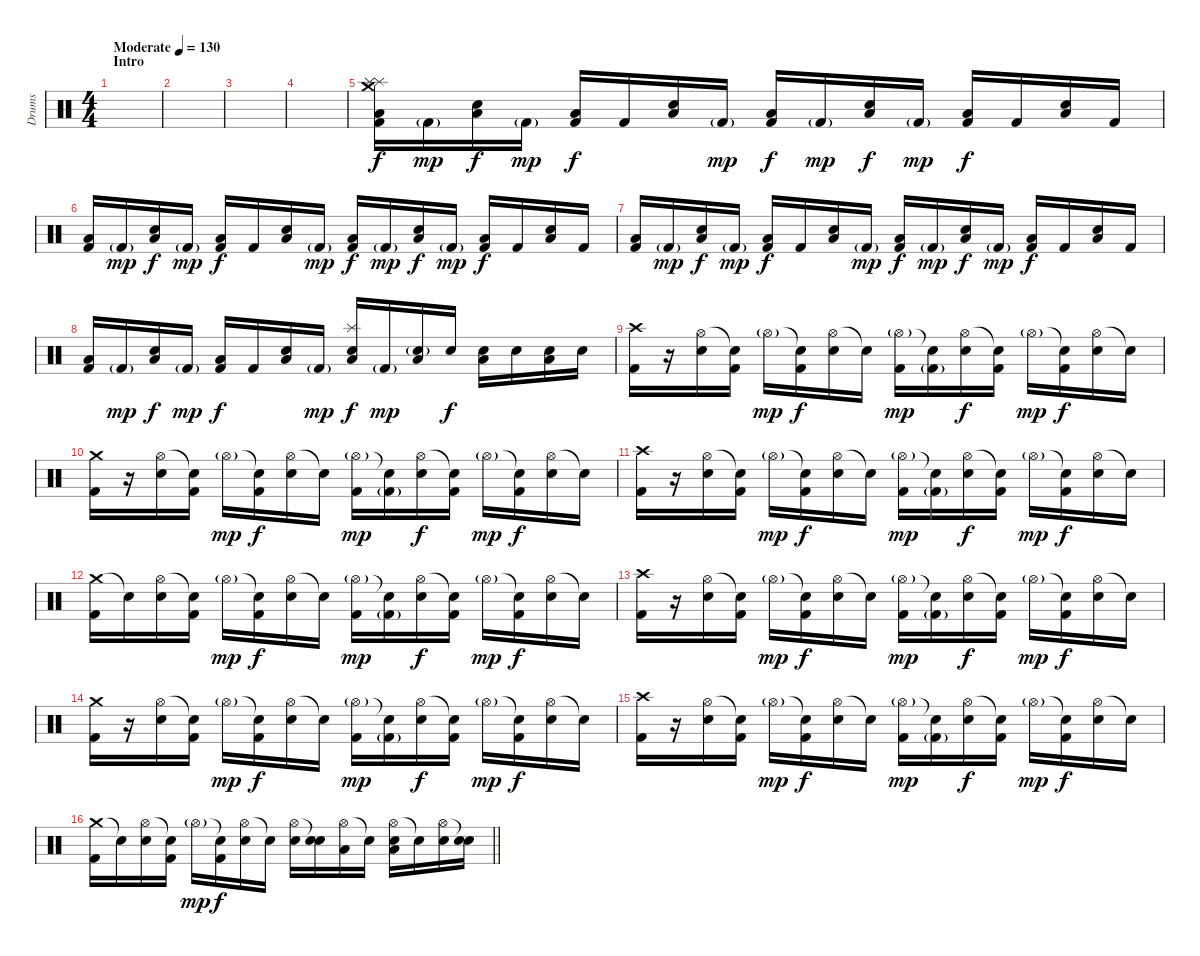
\track ("Drums" "Drums") {instrument percussion}
\staff {score}
\articulation defaults
\ts (4 4)
\section ("" "Intro")
\tempo (130 "Moderate")
\clef neutral
\ks c
|
|
|
|
("Low Floor Tom (hit)" "Crash medium (hit)" "Kick (hit) 2" "Splash (hit)" "Splash (hit)").16 "Kick (hit) 2"{g}.16{dy mp} ("Low Floor Tom (hit)" "Snare (hit) 2").16{dy f} "Kick (hit) 2"{g}.16{dy mp} ("Low Floor Tom (hit)" "Kick (hit) 2").16{dy f} "Kick (hit) 2".16 ("Low Floor Tom (hit)" "Snare (hit) 2").16 "Kick (hit) 2"{g}.16{dy mp} ("Low Floor Tom (hit)" "Kick (hit) 2").16{dy f} "Kick (hit) 2"{g}.16{dy mp} ("Low Floor Tom (hit)" "Snare (hit) 2").16{dy f} "Kick (hit) 2"{g}.16{dy mp} ("Low Floor Tom (hit)" "Kick (hit) 2").16{dy f} "Kick (hit) 2".16 ("Low Floor Tom (hit)" "Snare (hit) 2").16 "Kick (hit) 2".16 |
("Low Floor Tom (hit)" "Kick (hit) 2").16 "Kick (hit) 2"{g}.16{dy mp} ("Low Floor Tom (hit)" "Snare (hit) 2").16{dy f} "Kick (hit) 2"{g}.16{dy mp} ("Low Floor Tom (hit)" "Kick (hit) 2").16{dy f} "Kick (hit) 2".16 ("Low Floor Tom (hit)" "Snare (hit) 2").16 "Kick (hit) 2"{g}.16{dy mp} ("Low Floor Tom (hit)" "Kick (hit) 2").16{dy f} "Kick (hit) 2"{g}.16{dy mp} ("Low Floor Tom (hit)" "Snare (hit) 2").16{dy f} "Kick (hit) 2"{g}.16{dy mp} ("Low Floor Tom (hit)" "Kick (hit) 2").16{dy f} "Kick (hit) 2".16 ("Low Floor Tom (hit)" "Snare (hit) 2").16 "Kick (hit) 2".16 |
("Low Floor Tom (hit)" "Kick (hit) 2").16 "Kick (hit) 2"{g}.16{dy mp} ("Low Floor Tom (hit)" "Snare (hit) 2").16{dy f} "Kick (hit) 2"{g}.16{dy mp} ("Low Floor Tom (hit)" "Kick (hit) 2").16{dy f} "Kick (hit) 2".16 ("Low Floor Tom (hit)" "Snare (hit) 2").16 "Kick (hit) 2"{g}.16{dy mp} ("Low Floor Tom (hit)" "Kick (hit) 2").16{dy f} "Kick (hit) 2"{g}.16{dy mp} ("Low Floor Tom (hit)" "Snare (hit) 2").16{dy f} "Kick (hit) 2"{g}.16{dy mp} ("Low Floor Tom (hit)" "Kick (hit) 2").16{dy f} "Kick (hit) 2".16 ("Low Floor Tom (hit)" "Snare (hit) 2").16 "Kick (hit) 2".16 |
("Low Floor Tom (hit)" "Kick (hit) 2").16 "Kick (hit) 2"{g}.16{dy mp} ("Low Floor Tom (hit)" "Snare (hit) 2").16{dy f} "Kick (hit) 2"{g}.16{dy mp} ("Low Floor Tom (hit)" "Kick (hit) 2").16{dy f} "Kick (hit) 2".16 ("Low Floor Tom (hit)" "Snare (hit) 2").16 "Kick (hit) 2"{g}.16{dy mp} ("Low Floor Tom (hit)" "Splash (hit)" "Snare (hit) 2").16{dy f} "Kick (hit) 2"{g}.16{dy mp} ("Low Floor Tom (hit)" "Snare (hit) 2"{g}).16 "Snare (hit) 2".16{dy f} ("Low Floor Tom (hit)" "Snare (hit) 2").16 "Snare (hit) 2".16 ("Low Floor Tom (hit)" "Snare (hit) 2").16 "Snare (hit) 2".16 |
("Crash high (hit)" "Kick (hit) 2").16 r.16 ("Hi-Hat (open)" "Snare (hit) 2").16 ("Snare (hit)"{t} "Kick (hit) 2").16 "Hi-Hat (open)"{g}.16{dy mp} ("Snare (hit)"{t} "Kick (hit) 2").16{dy f} ("Hi-Hat (open)" "Snare (hit) 2").16 "Snare (hit)"{t}.16 ("Hi-Hat (open)"{g} "Kick (hit) 2").16{dy mp} ("Snare (hit)"{t} "Kick (hit) 2"{g}).16 ("Hi-Hat (open)" "Snare (hit) 2").16{dy f} ("Snare (hit)"{t} "Kick (hit) 2").16 "Hi-Hat (open)"{g}.16{dy mp} ("Snare (hit)"{t} "Kick (hit) 2").16{dy f} ("Hi-Hat (open)" "Snare (hit) 2").16 "Snare (hit)"{t}.16 |
("Crash medium (hit)" "Kick (hit) 2").16 r.16 ("Hi-Hat (open)" "Snare (hit) 2").16 ("Snare (hit)"{t} "Kick (hit) 2").16 "Hi-Hat (open)"{g}.16{dy mp} ("Snare (hit)"{t} "Kick (hit) 2").16{dy f} ("Hi-Hat (open)" "Snare (hit) 2").16 "Snare (hit)"{t}.16 ("Hi-Hat (open)"{g} "Kick (hit) 2").16{dy mp} ("Snare (hit)"{t} "Kick (hit) 2"{g}).16 ("Hi-Hat (open)" "Snare (hit) 2").16{dy f} ("Snare (hit)"{t} "Kick (hit) 2").16 "Hi-Hat (open)"{g}.16{dy mp} ("Snare (hit)"{t} "Kick (hit) 2").16{dy f} ("Hi-Hat (open)" "Snare (hit) 2").16 "Snare (hit)"{t}.16 |
("Crash high (hit)" "Kick (hit) 2").16 r.16 ("Hi-Hat (open)" "Snare (hit) 2").16 ("Snare (hit)"{t} "Kick (hit) 2").16 "Hi-Hat (open)"{g}.16{dy mp} ("Snare (hit)"{t} "Kick (hit) 2").16{dy f} ("Hi-Hat (open)" "Snare (hit) 2").16 "Snare (hit)"{t}.16 ("Hi-Hat (open)"{g} "Kick (hit) 2").16{dy mp} ("Snare (hit)"{t} "Kick (hit) 2"{g}).16 ("Hi-Hat (open)" "Snare (hit) 2").16{dy f} ("Snare (hit)"{t} "Kick (hit) 2").16 "Hi-Hat (open)"{g}.16{dy mp} ("Snare (hit)"{t} "Kick (hit) 2").16{dy f} ("Hi-Hat (open)" "Snare (hit) 2").16 "Snare (hit)"{t}.16 |
("Crash medium (hit)" "Kick (hit) 2").16 "Snare (hit)"{t}.16 ("Hi-Hat (open)" "Snare (hit) 2").16 ("Snare (hit)"{t} "Kick (hit) 2").16 "Hi-Hat (open)"{g}.16{dy mp} ("Snare (hit)"{t} "Kick (hit) 2").16{dy f} ("Hi-Hat (open)" "Snare (hit) 2").16 "Snare (hit)"{t}.16 ("Hi-Hat (open)"{g} "Kick (hit) 2").16{dy mp} ("Snare (hit)"{t} "Kick (hit) 2"{g}).16 ("Hi-Hat (open)" "Snare (hit) 2").16{dy f} ("Snare (hit)"{t} "Kick (hit) 2").16 "Hi-Hat (open)"{g}.16{dy mp} ("Snare (hit)"{t} "Kick (hit) 2").16{dy f} ("Hi-Hat (open)" "Snare (hit) 2").16 "Snare (hit)"{t}.16 |
("Crash high (hit)" "Kick (hit) 2").16 r.16 ("Hi-Hat (open)" "Snare (hit) 2").16 ("Snare (hit)"{t} "Kick (hit) 2").16 "Hi-Hat (open)"{g}.16{dy mp} ("Snare (hit)"{t} "Kick (hit) 2").16{dy f} ("Hi-Hat (open)" "Snare (hit) 2").16 "Snare (hit)"{t}.16 ("Hi-Hat (open)"{g} "Kick (hit) 2").16{dy mp} ("Snare (hit)"{t} "Kick (hit) 2"{g}).16 ("Hi-Hat (open)" "Snare (hit) 2").16{dy f} ("Snare (hit)"{t} "Kick (hit) 2").16 "Hi-Hat (open)"{g}.16{dy mp} ("Snare (hit)"{t} "Kick (hit) 2").16{dy f} ("Hi-Hat (open)" "Snare (hit) 2").16 "Snare (hit)"{t}.16 |
("Crash medium (hit)" "Kick (hit) 2").16 r.16 ("Hi-Hat (open)" "Snare (hit) 2").16 ("Snare (hit)"{t} "Kick (hit) 2").16 "Hi-Hat (open)"{g}.16{dy mp} ("Snare (hit)"{t} "Kick (hit) 2").16{dy f} ("Hi-Hat (open)" "Snare (hit) 2").16 "Snare (hit)"{t}.16 ("Hi-Hat (open)"{g} "Kick (hit) 2").16{dy mp} ("Snare (hit)"{t} "Kick (hit) 2"{g}).16 ("Hi-Hat (open)" "Snare (hit) 2").16{dy f} ("Snare (hit)"{t} "Kick (hit) 2").16 "Hi-Hat (open)"{g}.16{dy mp} ("Snare (hit)"{t} "Kick (hit) 2").16{dy f} ("Hi-Hat (open)" "Snare (hit) 2").16 "Snare (hit)"{t}.16 |
("Crash high (hit)" "Kick (hit) 2").16 r.16 ("Hi-Hat (open)" "Snare (hit) 2").16 ("Snare (hit)"{t} "Kick (hit) 2").16 "Hi-Hat (open)"{g}.16{dy mp} ("Snare (hit)"{t} "Kick (hit) 2").16{dy f} ("Hi-Hat (open)" "Snare (hit) 2").16 "Snare (hit)"{t}.16 ("Hi-Hat (open)"{g} "Kick (hit) 2").16{dy mp} ("Snare (hit)"{t} "Kick (hit) 2"{g}).16 ("Hi-Hat (open)" "Snare (hit) 2").16{dy f} ("Snare (hit)"{t} "Kick (hit) 2").16 "Hi-Hat (open)"{g}.16{dy mp} ("Snare (hit)"{t} "Kick (hit) 2").16{dy f} ("Hi-Hat (open)" "Snare (hit) 2").16 "Snare (hit)"{t}.16 |
\barLineRight lightlight
("Crash medium (hit)" "Kick (hit) 2").16 "Snare (hit)"{t}.16 ("Hi-Hat (open)" "Snare (hit) 2").16 ("Snare (hit)"{t} "Kick (hit) 2").16 "Hi-Hat (open)"{g}.16{dy mp} ("Snare (hit)"{t} "Kick (hit) 2").16{dy f} ("Hi-Hat (open)" "Snare (hit) 2").16 "Snare (hit)"{t}.16 ("Hi-Hat (open)" "Snare (hit) 2").16 ("Snare (hit)"{t} "Snare (hit) 2").16 ("Hi-Hat (open)" "Low Tom (hit)").16 "Snare (hit)"{t}.16 ("Hi-Hat (open)" "Electric Snare (hit)" "Low Floor Tom (hit)").16 "Snare (hit)"{t}.16 ("Hi-Hat (open)" "Snare (hit) 2").16 ("Snare (hit)"{t} "Snare (hit) 2").16
